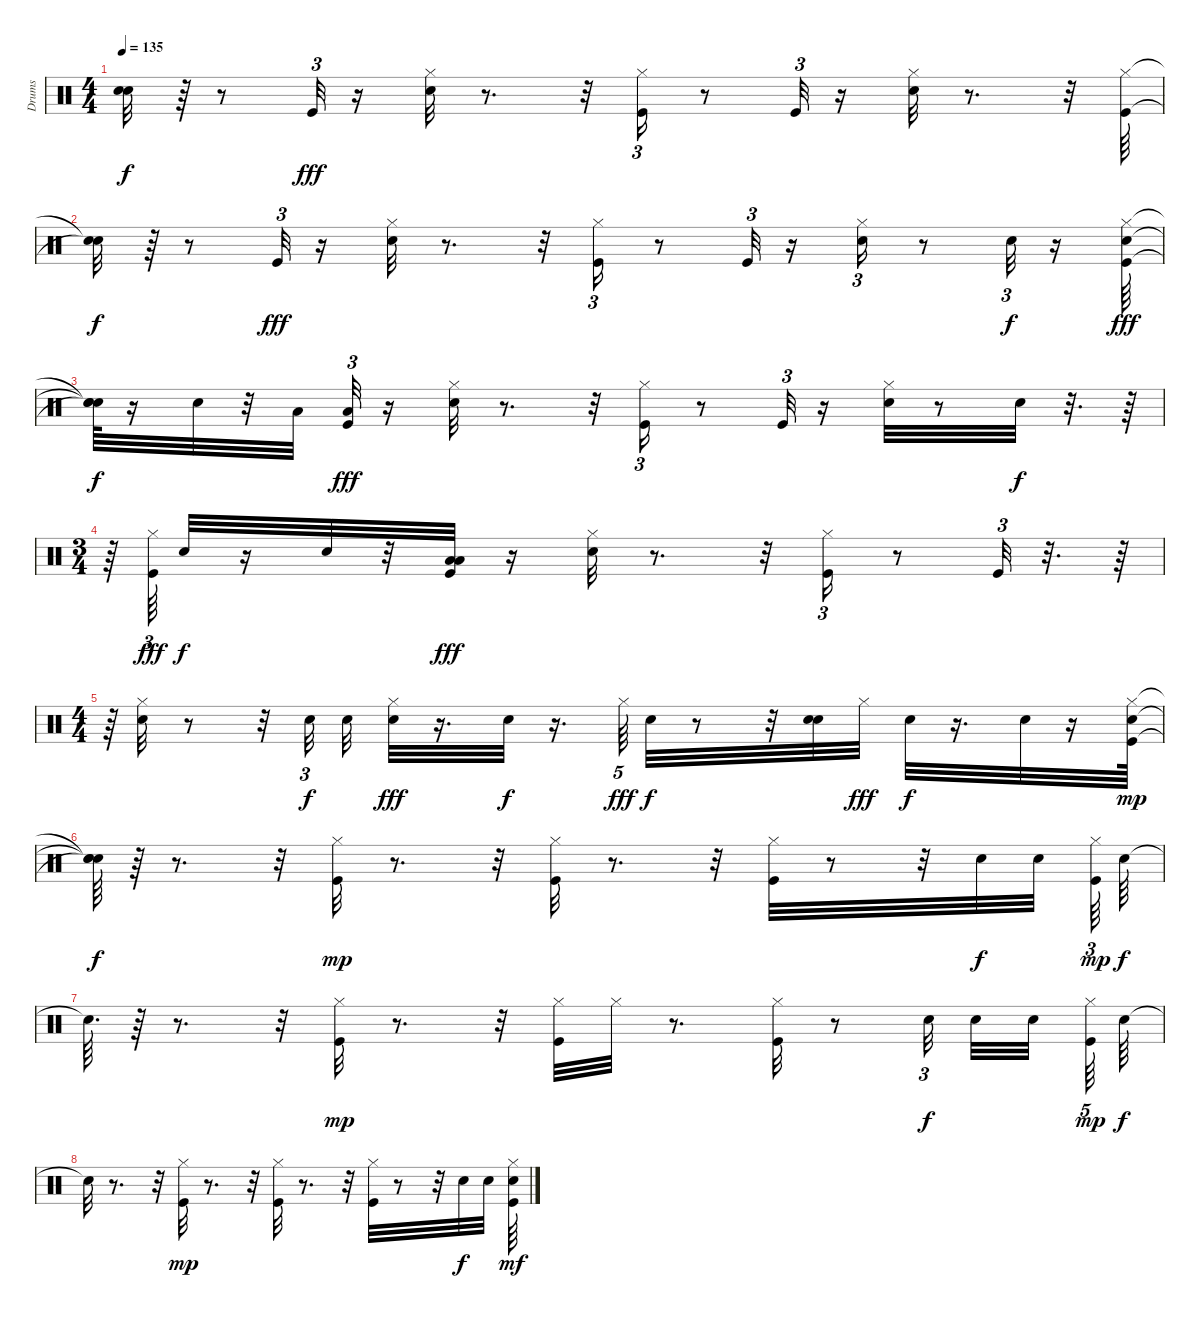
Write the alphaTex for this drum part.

\track ("Drums" "Drums") {instrument percussion}
\staff {score}
\articulation defaults
\ts (4 4)
\tempo 135
\clef neutral
\ks c
("Snare (hit)"{t} "Snare (hit)"{t}).32{dy f} r.64 r.8 "Kick (hit)".32{tu (3 2) dy fff} r.16 ("Electric Snare (hit)" "Hi-Hat (closed)").32 r.8{d} r.32 ("Kick (hit)" "Hi-Hat (closed)").16{tu (3 2)} r.8 "Kick (hit)".32{tu (3 2)} r.16 ("Electric Snare (hit)" "Hi-Hat (closed)").32 r.8{d} r.32 ("Kick (hit)" "Hi-Hat (closed)").64 |
("Snare (hit)"{t} "Snare (hit)"{t}).32{dy f} r.64 r.8 "Kick (hit)".32{tu (3 2) dy fff} r.16 ("Electric Snare (hit)" "Hi-Hat (closed)").32 r.8{d} r.32 ("Kick (hit)" "Hi-Hat (closed)").16{tu (3 2)} r.8 "Kick (hit)".32{tu (3 2)} r.16 ("Electric Snare (hit)" "Hi-Hat (closed)").16{tu (3 2)} r.8 "Electric Snare (hit)".32{tu (3 2) dy f} r.16 ("Electric Snare (hit)" "Kick (hit)" "Hi-Hat (closed)").64{dy fff} |
("Snare (hit)"{t} "Snare (hit)"{t} "Snare (hit)"{t}).64{dy f} r.16 "Electric Snare (hit)".32 r.32 "Low Floor Tom (hit)".32 ("Low Tom (hit)" "Kick (hit)").32{tu (3 2) dy fff} r.16 ("Electric Snare (hit)" "Hi-Hat (closed)").32 r.8{d} r.32 ("Kick (hit)" "Hi-Hat (closed)").16{tu (3 2)} r.8 "Kick (hit)".32{tu (3 2)} r.16 ("Electric Snare (hit)" "Hi-Hat (closed)").32 r.8 "Electric Snare (hit)".32{dy f} r.32{d} r.64 |
\ts (3 4)
r.64 ("Kick (hit)" "Hi-Hat (closed)").64{tu (3 2) dy fff} "Electric Snare (hit)".32{dy f} r.16 "Electric Snare (hit)".32 r.32 ("Kick (hit)" "Low Tom (hit)" "Low Floor Tom (hit)").32{dy fff} r.16 ("Electric Snare (hit)" "Hi-Hat (closed)").32 r.8{d} r.32 ("Kick (hit)" "Hi-Hat (closed)").16{tu (3 2)} r.8 "Kick (hit)".32{tu (3 2)} r.32{d} r.64 |
\ts (4 4)
r.64 ("Electric Snare (hit)" "Hi-Hat (closed)").32 r.8 r.32 "Electric Snare (hit)".32{tu (3 2) dy f} "Electric Snare (hit)".32 ("Electric Snare (hit)" "Hi-Hat (closed)").32{dy fff} r.16{d} "Electric Snare (hit)".32{dy f} r.16{d} "Hi-Hat (closed)".64{tu (5 4) dy fff} "Electric Snare (hit)".32{dy f} r.8 r.32 ("Electric Snare (hit)" "Electric Snare (hit)").32 "Hi-Hat (closed)".32{dy fff} "Electric Snare (hit)".32{dy f} r.16{d} "Electric Snare (hit)".32 r.16 ("Electric Snare (hit)" "Kick (hit)" "Hi-Hat (closed)").64{dy mp} |
("Snare (hit)"{t} "Snare (hit)"{t} "Snare (hit)"{t}).64{dy f} r.64 r.8{d} r.32 ("Kick (hit)" "Hi-Hat (closed)").32{dy mp} r.8{d} r.32 ("Kick (hit)" "Hi-Hat (closed)").32 r.8{d} r.32 ("Kick (hit)" "Hi-Hat (closed)").32 r.8 r.32 "Electric Snare (hit)".32{dy f} "Electric Snare (hit)".32 ("Kick (hit)" "Hi-Hat (closed)").64{tu (3 2) dy mp} "Electric Snare (hit)".64{dy f} |
"Snare (hit)"{t}.64{d} r.64 r.8{d} r.32 ("Kick (hit)" "Hi-Hat (closed)").32{dy mp} r.8{d} r.32 ("Kick (hit)" "Hi-Hat (closed)").32 "Hi-Hat (closed)".32 r.8{d} ("Kick (hit)" "Hi-Hat (closed)").32 r.8 "Electric Snare (hit)".32{tu (3 2) dy f beam splitsecondary} "Electric Snare (hit)".32 "Electric Snare (hit)".32{beam splitsecondary} ("Kick (hit)" "Hi-Hat (closed)").64{tu (5 4) dy mp} "Electric Snare (hit)".64{dy f} |
"Snare (hit)"{t}.32 r.8{d} r.32 ("Kick (hit)" "Hi-Hat (closed)").32{dy mp} r.8{d} r.32 ("Kick (hit)" "Hi-Hat (closed)").32 r.8{d} r.32 ("Kick (hit)" "Hi-Hat (closed)").32 r.8 r.32 "Electric Snare (hit)".32{dy f} "Electric Snare (hit)".32 ("Electric Snare (hit)" "Kick (hit)" "Hi-Hat (closed)").64{dy mf}
